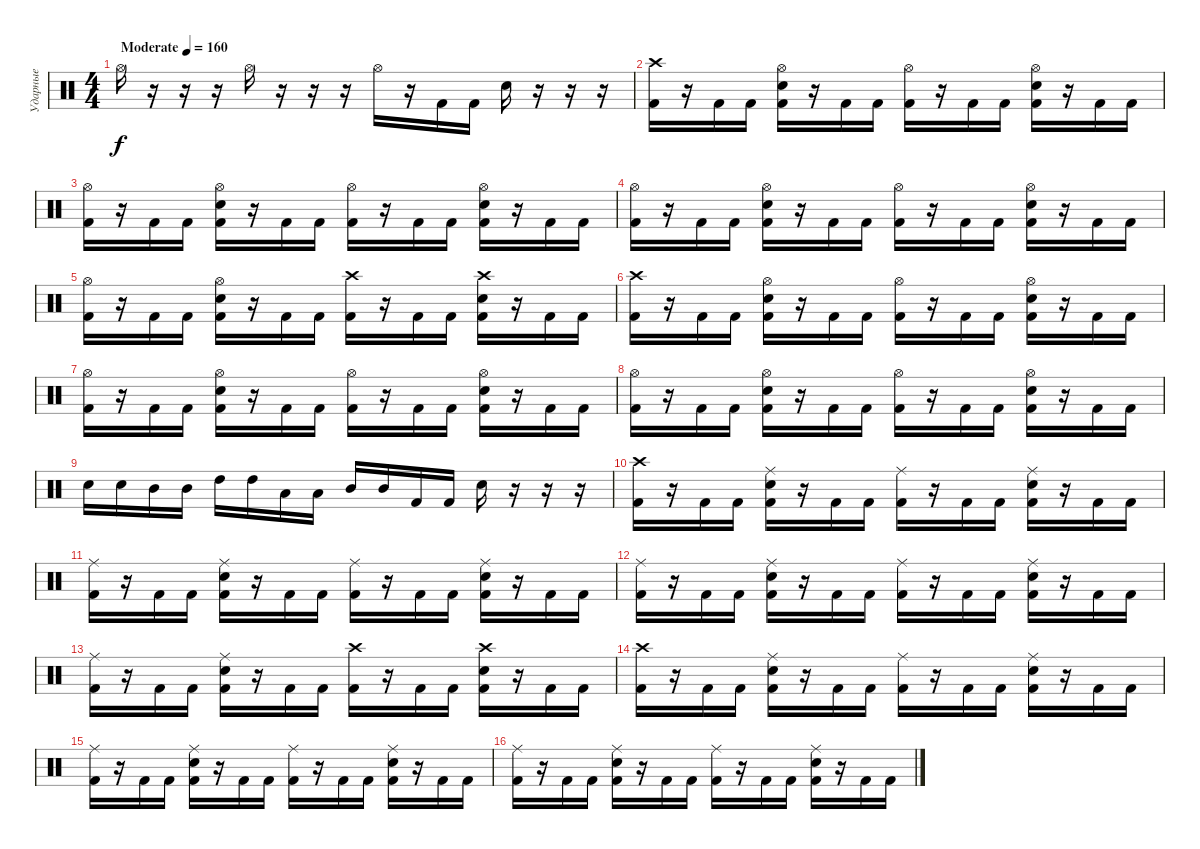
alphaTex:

\track ("Ударные" "Ударные") {instrument percussion}
\staff {score}
\articulation defaults
\ts (4 4)
\tempo (160 "Moderate")
\clef neutral
\ks c "Hi-Hat (open)".16{dy f}
r.16 r.16 r.16 "Hi-Hat (open)".16 r.16 r.16 r.16 "Hi-Hat (open)".16 r.16 "Kick (hit) 2".16 "Kick (hit) 2".16 "Electric Snare (hit)".16 r.16 r.16 r.16 |
("Crash high (hit)" "Kick (hit) 2").16 r.16 "Kick (hit) 2".16 "Kick (hit) 2".16 ("Hi-Hat (open)" "Electric Snare (hit)" "Kick (hit) 2").16 r.16 "Kick (hit) 2".16 "Kick (hit) 2".16 ("Hi-Hat (open)" "Kick (hit) 2").16 r.16 "Kick (hit) 2".16 "Kick (hit) 2".16 ("Hi-Hat (open)" "Electric Snare (hit)" "Kick (hit) 2").16 r.16 "Kick (hit) 2".16 "Kick (hit) 2".16 |
("Hi-Hat (open)" "Kick (hit) 2").16 r.16 "Kick (hit) 2".16 "Kick (hit) 2".16 ("Hi-Hat (open)" "Electric Snare (hit)" "Kick (hit) 2").16 r.16 "Kick (hit) 2".16 "Kick (hit) 2".16 ("Hi-Hat (open)" "Kick (hit) 2").16 r.16 "Kick (hit) 2".16 "Kick (hit) 2".16 ("Hi-Hat (open)" "Electric Snare (hit)" "Kick (hit) 2").16 r.16 "Kick (hit) 2".16 "Kick (hit) 2".16 |
("Hi-Hat (open)" "Kick (hit) 2").16 r.16 "Kick (hit) 2".16 "Kick (hit) 2".16 ("Hi-Hat (open)" "Electric Snare (hit)" "Kick (hit) 2").16 r.16 "Kick (hit) 2".16 "Kick (hit) 2".16 ("Hi-Hat (open)" "Kick (hit) 2").16 r.16 "Kick (hit) 2".16 "Kick (hit) 2".16 ("Hi-Hat (open)" "Electric Snare (hit)" "Kick (hit) 2").16 r.16 "Kick (hit) 2".16 "Kick (hit) 2".16 |
("Hi-Hat (open)" "Kick (hit) 2").16 r.16 "Kick (hit) 2".16 "Kick (hit) 2".16 ("Hi-Hat (open)" "Electric Snare (hit)" "Kick (hit) 2").16 r.16 "Kick (hit) 2".16 "Kick (hit) 2".16 ("Crash high (hit)" "Kick (hit) 2").16 r.16 "Kick (hit) 2".16 "Kick (hit) 2".16 ("Crash high (hit)" "Electric Snare (hit)" "Kick (hit) 2").16 r.16 "Kick (hit) 2".16 "Kick (hit) 2".16 |
("Crash high (hit)" "Kick (hit) 2").16 r.16 "Kick (hit) 2".16 "Kick (hit) 2".16 ("Hi-Hat (open)" "Electric Snare (hit)" "Kick (hit) 2").16 r.16 "Kick (hit) 2".16 "Kick (hit) 2".16 ("Hi-Hat (open)" "Kick (hit) 2").16 r.16 "Kick (hit) 2".16 "Kick (hit) 2".16 ("Hi-Hat (open)" "Electric Snare (hit)" "Kick (hit) 2").16 r.16 "Kick (hit) 2".16 "Kick (hit) 2".16 |
("Hi-Hat (open)" "Kick (hit) 2").16 r.16 "Kick (hit) 2".16 "Kick (hit) 2".16 ("Hi-Hat (open)" "Electric Snare (hit)" "Kick (hit) 2").16 r.16 "Kick (hit) 2".16 "Kick (hit) 2".16 ("Hi-Hat (open)" "Kick (hit) 2").16 r.16 "Kick (hit) 2".16 "Kick (hit) 2".16 ("Hi-Hat (open)" "Electric Snare (hit)" "Kick (hit) 2").16 r.16 "Kick (hit) 2".16 "Kick (hit) 2".16 |
("Hi-Hat (open)" "Kick (hit) 2").16 r.16 "Kick (hit) 2".16 "Kick (hit) 2".16 ("Hi-Hat (open)" "Electric Snare (hit)" "Kick (hit) 2").16 r.16 "Kick (hit) 2".16 "Kick (hit) 2".16 ("Hi-Hat (open)" "Kick (hit) 2").16 r.16 "Kick (hit) 2".16 "Kick (hit) 2".16 ("Hi-Hat (open)" "Electric Snare (hit)" "Kick (hit) 2").16 r.16 "Kick (hit) 2".16 "Kick (hit) 2".16 |
"Electric Snare (hit)".16 "Electric Snare (hit)".16 "Mid Tom (hit)".16 "Mid Tom (hit)".16 "High Tom (hit)".16 "High Tom (hit)".16 "Low Tom (hit)".16 "Low Tom (hit)".16 "Mid Tom (hit)".16 "Mid Tom (hit)".16 "Kick (hit) 2".16 "Kick (hit) 2".16 "Electric Snare (hit)".16 r.16 r.16 r.16 |
("Crash high (hit)" "Kick (hit) 2").16 r.16 "Kick (hit) 2".16 "Kick (hit) 2".16 ("Ride (middle)" "Electric Snare (hit)" "Kick (hit) 2").16 r.16 "Kick (hit) 2".16 "Kick (hit) 2".16 ("Ride (middle)" "Kick (hit) 2").16 r.16 "Kick (hit) 2".16 "Kick (hit) 2".16 ("Ride (middle)" "Electric Snare (hit)" "Kick (hit) 2").16 r.16 "Kick (hit) 2".16 "Kick (hit) 2".16 |
("Ride (middle)" "Kick (hit) 2").16 r.16 "Kick (hit) 2".16 "Kick (hit) 2".16 ("Ride (middle)" "Electric Snare (hit)" "Kick (hit) 2").16 r.16 "Kick (hit) 2".16 "Kick (hit) 2".16 ("Ride (middle)" "Kick (hit) 2").16 r.16 "Kick (hit) 2".16 "Kick (hit) 2".16 ("Ride (middle)" "Electric Snare (hit)" "Kick (hit) 2").16 r.16 "Kick (hit) 2".16 "Kick (hit) 2".16 |
("Ride (middle)" "Kick (hit) 2").16 r.16 "Kick (hit) 2".16 "Kick (hit) 2".16 ("Ride (middle)" "Electric Snare (hit)" "Kick (hit) 2").16 r.16 "Kick (hit) 2".16 "Kick (hit) 2".16 ("Ride (middle)" "Kick (hit) 2").16 r.16 "Kick (hit) 2".16 "Kick (hit) 2".16 ("Ride (middle)" "Electric Snare (hit)" "Kick (hit) 2").16 r.16 "Kick (hit) 2".16 "Kick (hit) 2".16 |
("Ride (middle)" "Kick (hit) 2").16 r.16 "Kick (hit) 2".16 "Kick (hit) 2".16 ("Ride (middle)" "Electric Snare (hit)" "Kick (hit) 2").16 r.16 "Kick (hit) 2".16 "Kick (hit) 2".16 ("Crash high (hit)" "Kick (hit) 2").16 r.16 "Kick (hit) 2".16 "Kick (hit) 2".16 ("Crash high (hit)" "Electric Snare (hit)" "Kick (hit) 2").16 r.16 "Kick (hit) 2".16 "Kick (hit) 2".16 |
("Crash high (hit)" "Kick (hit) 2").16 r.16 "Kick (hit) 2".16 "Kick (hit) 2".16 ("Ride (middle)" "Electric Snare (hit)" "Kick (hit) 2").16 r.16 "Kick (hit) 2".16 "Kick (hit) 2".16 ("Ride (middle)" "Kick (hit) 2").16 r.16 "Kick (hit) 2".16 "Kick (hit) 2".16 ("Ride (middle)" "Electric Snare (hit)" "Kick (hit) 2").16 r.16 "Kick (hit) 2".16 "Kick (hit) 2".16 |
("Ride (middle)" "Kick (hit) 2").16 r.16 "Kick (hit) 2".16 "Kick (hit) 2".16 ("Ride (middle)" "Electric Snare (hit)" "Kick (hit) 2").16 r.16 "Kick (hit) 2".16 "Kick (hit) 2".16 ("Ride (middle)" "Kick (hit) 2").16 r.16 "Kick (hit) 2".16 "Kick (hit) 2".16 ("Ride (middle)" "Electric Snare (hit)" "Kick (hit) 2").16 r.16 "Kick (hit) 2".16 "Kick (hit) 2".16 |
("Ride (middle)" "Kick (hit) 2").16 r.16 "Kick (hit) 2".16 "Kick (hit) 2".16 ("Ride (middle)" "Electric Snare (hit)" "Kick (hit) 2").16 r.16 "Kick (hit) 2".16 "Kick (hit) 2".16 ("Ride (middle)" "Kick (hit) 2").16 r.16 "Kick (hit) 2".16 "Kick (hit) 2".16 ("Ride (middle)" "Electric Snare (hit)" "Kick (hit) 2").16 r.16 "Kick (hit) 2".16 "Kick (hit) 2".16
